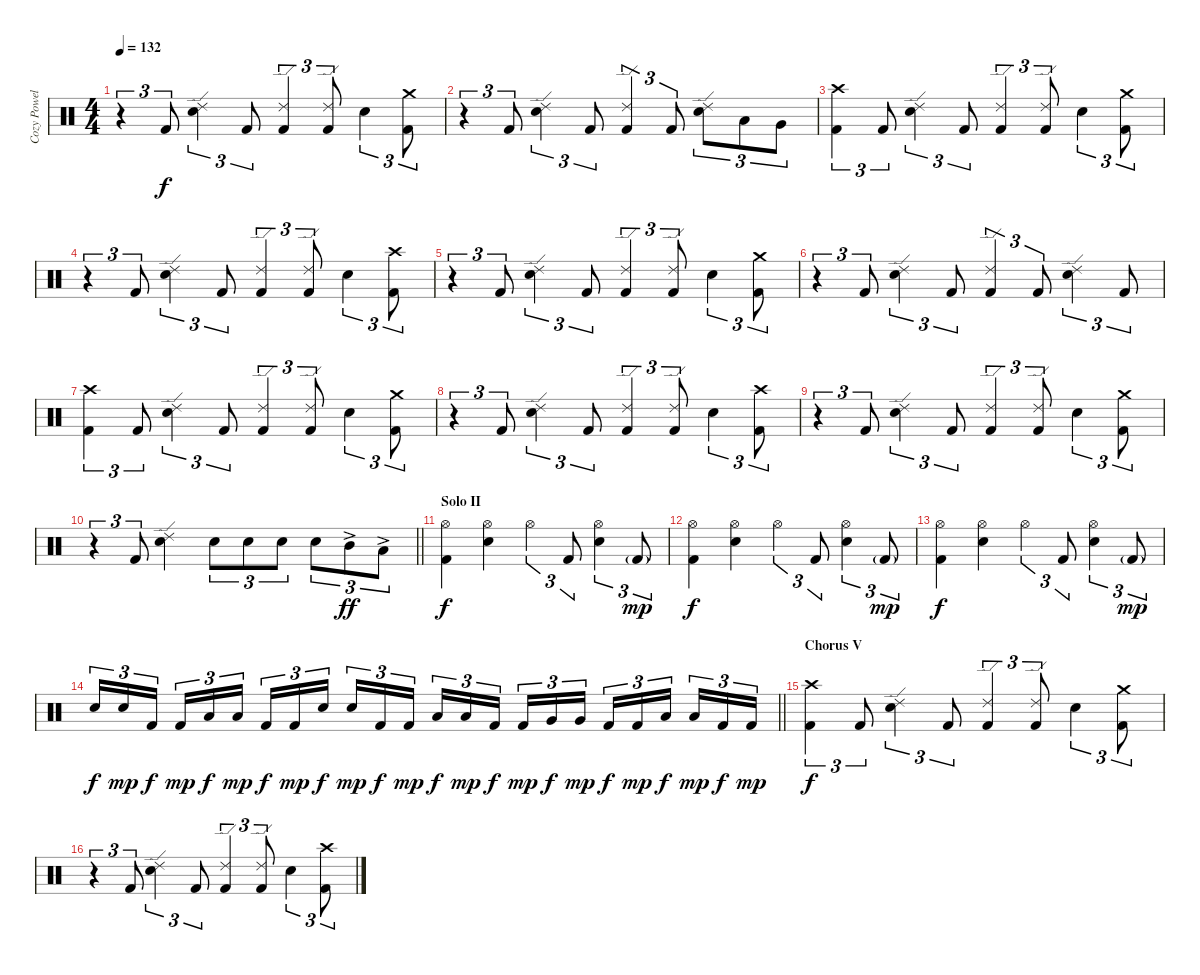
\track ("Cozy Powell" "Cozy Powel") {instrument percussion}
\staff {score}
\articulation defaults
\ts (4 4)
\tempo 132
\clef neutral
\ks c
r.4{tu (3 2) dy f} "Kick (hit) 2".8{tu (3 2)} ("Ride (edge) 2" "Snare (hit) 2").4{tu (3 2)} "Kick (hit) 2".8{tu (3 2)} ("Ride (edge) 2" "Kick (hit) 2").4{tu (3 2)} ("Ride (edge) 2" "Kick (hit) 2").8{tu (3 2)} "Snare (hit) 2".4{tu (3 2)} ("Crash medium (hit)" "Kick (hit) 2").8{tu (3 2)} |
r.4{tu (3 2)} "Kick (hit) 2".8{tu (3 2)} ("Ride (edge) 2" "Snare (hit) 2").4{tu (3 2)} "Kick (hit) 2".8{tu (3 2)} ("Ride (edge) 2" "Kick (hit) 2").4{tu (3 2)} "Kick (hit) 2".8{tu (3 2)} ("Ride (edge) 2" "Snare (hit) 2").8{tu (3 2)} "Low Tom (hit)".8{tu (3 2)} "Very Low Tom (hit)".8{tu (3 2)} |
("Crash high (hit)" "Kick (hit) 2").4{tu (3 2)} "Kick (hit) 2".8{tu (3 2)} ("Ride (edge) 2" "Snare (hit) 2").4{tu (3 2)} "Kick (hit) 2".8{tu (3 2)} ("Ride (edge) 2" "Kick (hit) 2").4{tu (3 2)} ("Ride (edge) 2" "Kick (hit) 2").8{tu (3 2)} "Snare (hit) 2".4{tu (3 2)} ("Crash medium (hit)" "Kick (hit) 2").8{tu (3 2)} |
r.4{tu (3 2)} "Kick (hit) 2".8{tu (3 2)} ("Ride (edge) 2" "Snare (hit) 2").4{tu (3 2)} "Kick (hit) 2".8{tu (3 2)} ("Ride (edge) 2" "Kick (hit) 2").4{tu (3 2)} ("Ride (edge) 2" "Kick (hit) 2").8{tu (3 2)} "Snare (hit) 2".4{tu (3 2)} ("Crash high (hit)" "Kick (hit) 2").8{tu (3 2)} |
r.4{tu (3 2)} "Kick (hit) 2".8{tu (3 2)} ("Ride (edge) 2" "Snare (hit) 2").4{tu (3 2)} "Kick (hit) 2".8{tu (3 2)} ("Ride (edge) 2" "Kick (hit) 2").4{tu (3 2)} ("Ride (edge) 2" "Kick (hit) 2").8{tu (3 2)} "Snare (hit) 2".4{tu (3 2)} ("Crash medium (hit)" "Kick (hit) 2").8{tu (3 2)} |
r.4{tu (3 2)} "Kick (hit) 2".8{tu (3 2)} ("Ride (edge) 2" "Snare (hit) 2").4{tu (3 2)} "Kick (hit) 2".8{tu (3 2)} ("Ride (edge) 2" "Kick (hit) 2").4{tu (3 2)} "Kick (hit) 2".8{tu (3 2)} ("Ride (edge) 2" "Snare (hit) 2").4{tu (3 2)} "Kick (hit) 2".8{tu (3 2)} |
("Crash high (hit)" "Kick (hit) 2").4{tu (3 2)} "Kick (hit) 2".8{tu (3 2)} ("Ride (edge) 2" "Snare (hit) 2").4{tu (3 2)} "Kick (hit) 2".8{tu (3 2)} ("Ride (edge) 2" "Kick (hit) 2").4{tu (3 2)} ("Ride (edge) 2" "Kick (hit) 2").8{tu (3 2)} "Snare (hit) 2".4{tu (3 2)} ("Crash medium (hit)" "Kick (hit) 2").8{tu (3 2)} |
r.4{tu (3 2)} "Kick (hit) 2".8{tu (3 2)} ("Ride (edge) 2" "Snare (hit) 2").4{tu (3 2)} "Kick (hit) 2".8{tu (3 2)} ("Ride (edge) 2" "Kick (hit) 2").4{tu (3 2)} ("Ride (edge) 2" "Kick (hit) 2").8{tu (3 2)} "Snare (hit) 2".4{tu (3 2)} ("Crash high (hit)" "Kick (hit) 2").8{tu (3 2)} |
r.4{tu (3 2)} "Kick (hit) 2".8{tu (3 2)} ("Ride (edge) 2" "Snare (hit) 2").4{tu (3 2)} "Kick (hit) 2".8{tu (3 2)} ("Ride (edge) 2" "Kick (hit) 2").4{tu (3 2)} ("Ride (edge) 2" "Kick (hit) 2").8{tu (3 2)} "Snare (hit) 2".4{tu (3 2)} ("Crash medium (hit)" "Kick (hit) 2").8{tu (3 2)} |
\barLineRight lightlight
r.4{tu (3 2)} "Kick (hit) 2".8{tu (3 2)} ("Ride (edge) 2" "Snare (hit) 2").4 "Snare (hit) 2".8{tu (3 2)} "Snare (hit) 2".8{tu (3 2)} "Snare (hit) 2".8{tu (3 2)} "Snare (hit) 2".8{tu (3 2)} "Mid Tom (hit)"{ac}.8{tu (3 2) dy ff} "Low Tom (hit)"{ac}.8{tu (3 2)} |
\section ("" "Solo II")
("Hi-Hat (open)" "Kick (hit) 2").4{dy f} ("Hi-Hat (open)" "Snare (hit) 2").4 "Hi-Hat (open)".4{tu (3 2)} "Kick (hit) 2".8{tu (3 2)} ("Hi-Hat (open)" "Snare (hit) 2").4{tu (3 2)} "Kick (hit) 2"{g}.8{tu (3 2) dy mp} |
("Hi-Hat (open)" "Kick (hit) 2").4{dy f} ("Hi-Hat (open)" "Snare (hit) 2").4 "Hi-Hat (open)".4{tu (3 2)} "Kick (hit) 2".8{tu (3 2)} ("Hi-Hat (open)" "Snare (hit) 2").4{tu (3 2)} "Kick (hit) 2"{g}.8{tu (3 2) dy mp} |
("Hi-Hat (open)" "Kick (hit) 2").4{dy f} ("Hi-Hat (open)" "Snare (hit) 2").4 "Hi-Hat (open)".4{tu (3 2)} "Kick (hit) 2".8{tu (3 2)} ("Hi-Hat (open)" "Snare (hit) 2").4{tu (3 2)} "Kick (hit) 2"{g}.8{tu (3 2) dy mp} |
\barLineRight lightlight "Snare (hit) 2".16{tu (3 2) dy f} "Snare (hit) 2".16{tu (3 2) dy mp} "Kick (hit) 2".16{tu (3 2) dy f beam splitsecondary} "Kick (hit) 2".16{tu (3 2) dy mp} "Low Tom (hit)".16{tu (3 2) dy f} "Low Tom (hit)".16{tu (3 2) dy mp} "Kick (hit) 2".16{tu (3 2) dy f} "Kick (hit) 2".16{tu (3 2) dy mp} "Snare (hit) 2".16{tu (3 2) dy f beam splitsecondary} "Snare (hit) 2".16{tu (3 2) dy mp} "Kick (hit) 2".16{tu (3 2) dy f} "Kick (hit) 2".16{tu (3 2) dy mp} "Low Tom (hit)".16{tu (3 2) dy f} "Low Tom (hit)".16{tu (3 2) dy mp} "Kick (hit) 2".16{tu (3 2) dy f beam splitsecondary} "Kick (hit) 2".16{tu (3 2) dy mp} "Very Low Tom (hit)".16{tu (3 2) dy f} "Very Low Tom (hit)".16{tu (3 2) dy mp} "Kick (hit) 2".16{tu (3 2) dy f} "Kick (hit) 2".16{tu (3 2) dy mp} "Low Floor Tom (hit)".16{tu (3 2) dy f beam splitsecondary} "Low Floor Tom (hit)".16{tu (3 2) dy mp} "Kick (hit) 2".16{tu (3 2) dy f} "Kick (hit) 2".16{tu (3 2) dy mp}
|
\section ("" "Chorus V")
("Crash high (hit)" "Kick (hit) 2").4{tu (3 2) dy f} "Kick (hit) 2".8{tu (3 2)} ("Ride (edge) 2" "Snare (hit) 2").4{tu (3 2)} "Kick (hit) 2".8{tu (3 2)} ("Ride (edge) 2" "Kick (hit) 2").4{tu (3 2)} ("Ride (edge) 2" "Kick (hit) 2").8{tu (3 2)} "Snare (hit) 2".4{tu (3 2)} ("Crash medium (hit)" "Kick (hit) 2").8{tu (3 2)} |
r.4{tu (3 2)} "Kick (hit) 2".8{tu (3 2)} ("Ride (edge) 2" "Snare (hit) 2").4{tu (3 2)} "Kick (hit) 2".8{tu (3 2)} ("Ride (edge) 2" "Kick (hit) 2").4{tu (3 2)} ("Ride (edge) 2" "Kick (hit) 2").8{tu (3 2)} "Snare (hit) 2".4{tu (3 2)} ("Crash high (hit)" "Kick (hit) 2").8{tu (3 2)}
